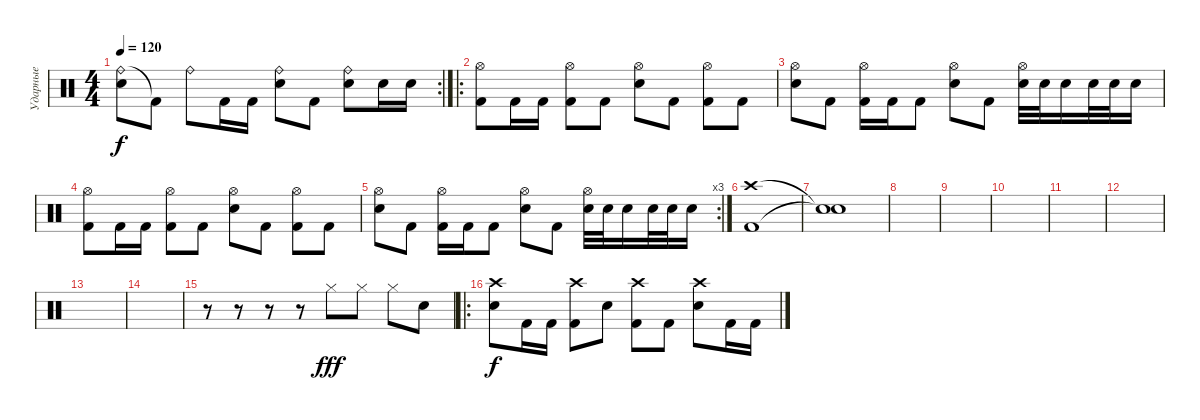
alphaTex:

\track ("Ударные" "Ударные") {instrument percussion}
\staff {score}
\articulation defaults
\rc 2
\ts (4 4)
\tempo 120
\clef neutral
\ks c
("Ride (bell)" "Snare (hit)"{t}).8{dy f} "Kick (hit) 2"{t}.8 "Ride (bell)".8 "Kick (hit) 2".16 "Kick (hit) 2".16 ("Ride (bell)" "Snare (hit) 2").8 "Kick (hit) 2".8 ("Ride (bell)" "Snare (hit) 2").8 "Snare (hit) 2".16 "Snare (hit) 2".16 |
\ro
("Kick (hit) 2" "Hi-Hat (open)").8 "Kick (hit) 2".16 "Kick (hit) 2".16 ("Kick (hit) 2" "Hi-Hat (open)").8 "Kick (hit) 2".8 ("Snare (hit) 2" "Hi-Hat (open)").8 "Kick (hit) 2".8 ("Kick (hit) 2" "Hi-Hat (open)").8 "Kick (hit) 2".8 |
("Snare (hit) 2" "Hi-Hat (open)").8 "Kick (hit) 2".8 ("Kick (hit) 2" "Hi-Hat (open)").16 "Kick (hit) 2".16 "Kick (hit) 2".8 ("Snare (hit) 2" "Hi-Hat (open)").8 "Kick (hit) 2".8 ("Snare (hit) 2" "Hi-Hat (open)").32 "Snare (hit) 2".32 "Snare (hit) 2".16 "Snare (hit) 2".32 "Snare (hit) 2".32 "Snare (hit) 2".16 |
("Kick (hit) 2" "Hi-Hat (open)").8 "Kick (hit) 2".16 "Kick (hit) 2".16 ("Kick (hit) 2" "Hi-Hat (open)").8 "Kick (hit) 2".8 ("Snare (hit) 2" "Hi-Hat (open)").8 "Kick (hit) 2".8 ("Kick (hit) 2" "Hi-Hat (open)").8 "Kick (hit) 2".8 |
\rc 3
("Snare (hit) 2" "Hi-Hat (open)").8 "Kick (hit) 2".8 ("Kick (hit) 2" "Hi-Hat (open)").16 "Kick (hit) 2".16 "Kick (hit) 2".8 ("Snare (hit) 2" "Hi-Hat (open)").8 "Kick (hit) 2".8 ("Snare (hit) 2" "Hi-Hat (open)").32 "Snare (hit) 2".32 "Snare (hit) 2".16 "Snare (hit) 2".32 "Snare (hit) 2".32 "Snare (hit) 2".16 |
("Crash high (hit)" "Kick (hit) 2").1 |
("Snare (hit)"{t} "Snare (hit)"{t}).1 |
|
|
|
|
|
|
|
r.8 r.8 r.8 r.8 "Hi-Hat (closed)".8{dy fff} "Hi-Hat (closed)".8 "Hi-Hat (closed)".8 "Snare (hit) 2".8 |
\ro
("Snare (hit) 2" "Crash high (hit)").8{dy f} "Kick (hit) 2".16 "Kick (hit) 2".16 ("Kick (hit) 2" "Crash high (hit)").8 "Snare (hit) 2".8 ("Kick (hit) 2" "Crash high (hit)").8 "Kick (hit) 2".8 ("Snare (hit) 2" "Crash high (hit)").8 "Kick (hit) 2".16 "Kick (hit) 2".16
